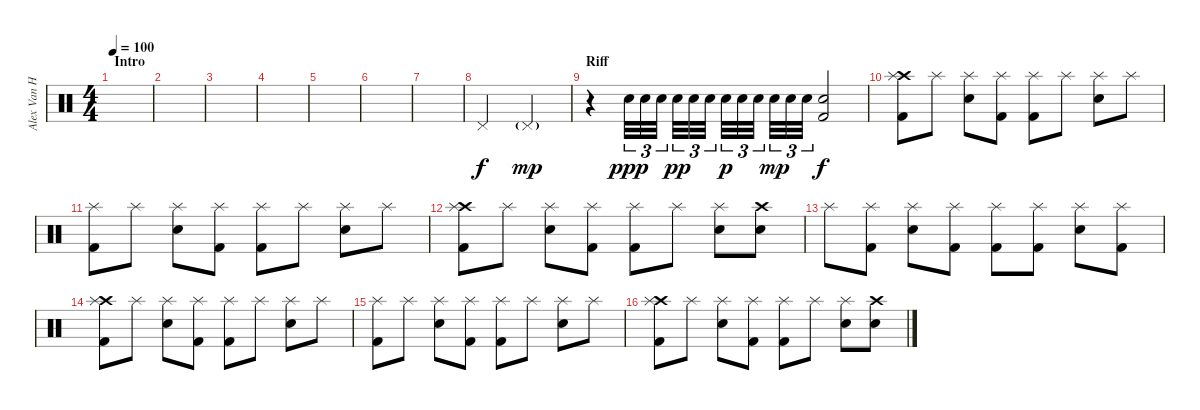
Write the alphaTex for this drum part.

\track ("Alex Van Halen" "Alex Van H") {instrument percussion}
\staff {score}
\articulation defaults
\ts (4 4)
\section ("" "Intro")
\tempo 100
\clef neutral
\ks c
|
|
|
|
|
|
|
"Pedal Hi-Hat (hit)".2 "Pedal Hi-Hat (hit)"{g}.2{dy mp} |
\section ("" "Riff")
r.4 "Snare (hit) 2".32{tu (3 2) dy ppp} "Snare (hit) 2".32{tu (3 2)} "Snare (hit) 2".32{tu (3 2)} "Snare (hit) 2".32{tu (3 2) dy pp} "Snare (hit) 2".32{tu (3 2)} "Snare (hit) 2".32{tu (3 2)} "Snare (hit) 2".32{tu (3 2) dy p} "Snare (hit) 2".32{tu (3 2)} "Snare (hit) 2".32{tu (3 2)} "Snare (hit) 2".32{tu (3 2) dy mp} "Snare (hit) 2".32{tu (3 2)} "Snare (hit) 2".32{tu (3 2)} ("Snare (hit) 2" "Kick (hit) 2").2{dy f} |
("Crash high (hit)" "Kick (hit) 2" "Splash (hit)").8 "Splash (hit)".8 ("Snare (hit) 2" "Splash (hit)").8 ("Kick (hit) 2" "Splash (hit)").8 ("Kick (hit) 2" "Splash (hit)").8 "Splash (hit)".8 ("Snare (hit) 2" "Splash (hit)").8 "Splash (hit)".8 |
("Kick (hit) 2" "Splash (hit)").8 "Splash (hit)".8 ("Snare (hit) 2" "Splash (hit)").8 ("Kick (hit) 2" "Splash (hit)").8 ("Kick (hit) 2" "Splash (hit)").8 "Splash (hit)".8 ("Snare (hit) 2" "Splash (hit)").8 "Splash (hit)".8 |
("Crash high (hit)" "Kick (hit) 2" "Splash (hit)").8 "Splash (hit)".8 ("Snare (hit) 2" "Splash (hit)").8 ("Kick (hit) 2" "Splash (hit)").8 ("Kick (hit) 2" "Splash (hit)").8 "Splash (hit)".8 ("Snare (hit) 2" "Splash (hit)").8 ("Crash high (hit)" "Electric Snare (hit)").8 |
"Splash (hit)".8 ("Kick (hit) 2" "Splash (hit)").8 ("Snare (hit) 2" "Splash (hit)").8 ("Kick (hit) 2" "Splash (hit)").8 ("Kick (hit) 2" "Splash (hit)").8 ("Kick (hit) 2" "Splash (hit)").8 ("Snare (hit) 2" "Splash (hit)").8 ("Kick (hit) 2" "Splash (hit)").8 |
("Crash high (hit)" "Kick (hit) 2" "Splash (hit)").8 "Splash (hit)".8 ("Snare (hit) 2" "Splash (hit)").8 ("Kick (hit) 2" "Splash (hit)").8 ("Kick (hit) 2" "Splash (hit)").8 "Splash (hit)".8 ("Snare (hit) 2" "Splash (hit)").8 "Splash (hit)".8 |
("Kick (hit) 2" "Splash (hit)").8 "Splash (hit)".8 ("Snare (hit) 2" "Splash (hit)").8 ("Kick (hit) 2" "Splash (hit)").8 ("Kick (hit) 2" "Splash (hit)").8 "Splash (hit)".8 ("Snare (hit) 2" "Splash (hit)").8 "Splash (hit)".8 |
("Crash high (hit)" "Kick (hit) 2" "Splash (hit)").8 "Splash (hit)".8 ("Snare (hit) 2" "Splash (hit)").8 ("Kick (hit) 2" "Splash (hit)").8 ("Kick (hit) 2" "Splash (hit)").8 "Splash (hit)".8 ("Snare (hit) 2" "Splash (hit)").8 ("Crash high (hit)" "Electric Snare (hit)").8
